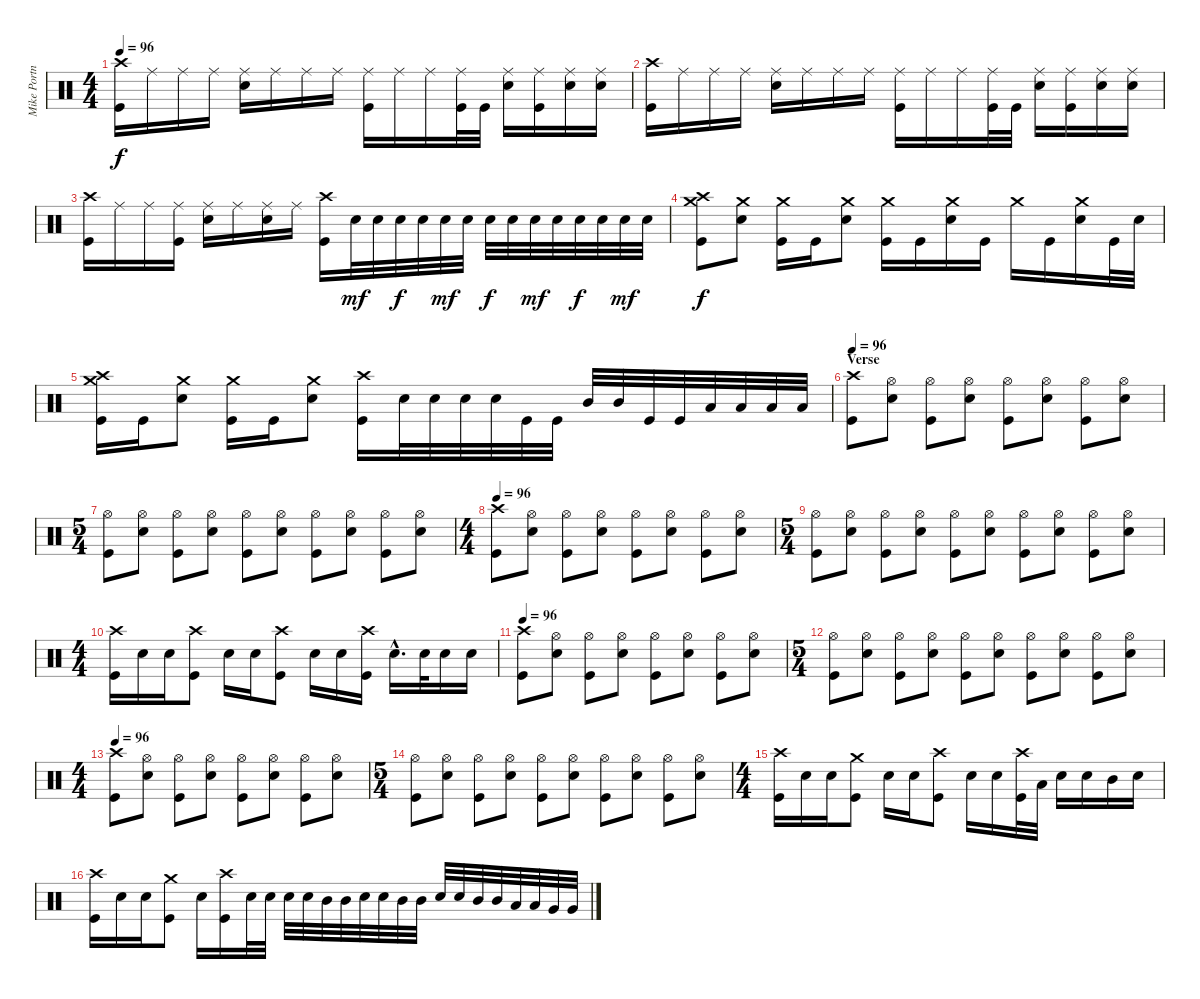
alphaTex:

\track ("Mike Portnoy" "Mike Portn") {instrument percussion}
\staff {score}
\articulation defaults
\ts (4 4)
\tempo 96
\clef neutral
\ks c
("Crash high (hit)" "Kick (hit)").16{dy f} "Ride (middle)".16 "Ride (middle)".16 "Ride (middle)".16 ("Ride (middle)" "Electric Snare (hit)").16 "Ride (middle)".16 "Ride (middle)".16 "Ride (middle)".16 ("Ride (middle)" "Kick (hit)").16 "Ride (middle)".16 "Ride (middle)".16 ("Ride (middle)" "Kick (hit)").32 "Kick (hit)".32 ("Ride (middle)" "Electric Snare (hit)").16 ("Ride (middle)" "Kick (hit)").16 ("Ride (middle)" "Electric Snare (hit)").16 ("Ride (middle)" "Electric Snare (hit)").16 |
("Crash high (hit)" "Kick (hit)").16 "Ride (middle)".16 "Ride (middle)".16 "Ride (middle)".16 ("Ride (middle)" "Electric Snare (hit)").16 "Ride (middle)".16 "Ride (middle)".16 "Ride (middle)".16 ("Ride (middle)" "Kick (hit)").16 "Ride (middle)".16 "Ride (middle)".16 ("Ride (middle)" "Kick (hit)").32 "Kick (hit)".32 ("Ride (middle)" "Electric Snare (hit)").16 ("Ride (middle)" "Kick (hit)").16 ("Ride (middle)" "Electric Snare (hit)").16 ("Ride (middle)" "Electric Snare (hit)").16 |
("Crash high (hit)" "Kick (hit)").16 "Ride (middle)".16 "Ride (middle)".16 ("Ride (middle)" "Kick (hit)").16 ("Ride (middle)" "Electric Snare (hit)").16 "Ride (middle)".16 ("Ride (middle)" "Electric Snare (hit)").16 "Ride (middle)".16 ("Crash high (hit)" "Kick (hit)").16 "Electric Snare (hit)".32{dy mf} "Electric Snare (hit)".32 "Electric Snare (hit)".32{dy f} "Electric Snare (hit)".32 "Electric Snare (hit)".32{dy mf} "Electric Snare (hit)".32 "Electric Snare (hit)".32{dy f} "Electric Snare (hit)".32 "Electric Snare (hit)".32{dy mf} "Electric Snare (hit)".32 "Electric Snare (hit)".32{dy f} "Electric Snare (hit)".32 "Electric Snare (hit)".32{dy mf} "Electric Snare (hit)".32 |
("Crash high (hit)" "Crash medium (hit)" "Kick (hit)").8{dy f} ("Crash medium (hit)" "Electric Snare (hit)").8 ("Crash medium (hit)" "Kick (hit)").16 "Kick (hit)".16 ("Crash medium (hit)" "Electric Snare (hit)").8 ("Crash medium (hit)" "Kick (hit)").16 "Kick (hit)".16 ("Crash medium (hit)" "Electric Snare (hit)").16 "Kick (hit)".16 "Crash medium (hit)".16 "Kick (hit)".16 ("Crash medium (hit)" "Electric Snare (hit)").16 "Kick (hit)".32 "Electric Snare (hit)".32 |
("Crash medium (hit)" "Crash high (hit)" "Kick (hit)").16 "Kick (hit)".16 ("Crash medium (hit)" "Electric Snare (hit)").8 ("Crash medium (hit)" "Kick (hit)").16 "Kick (hit)".16 ("Crash medium (hit)" "Electric Snare (hit)").8 ("Crash high (hit)" "Kick (hit)").16 "Electric Snare (hit)".32 "Electric Snare (hit)".32 "Electric Snare (hit)".32 "Electric Snare (hit)".32 "Kick (hit)".32 "Kick (hit)".32 "Mid Tom (hit)".32 "Mid Tom (hit)".32 "Kick (hit)".32 "Kick (hit)".32 "Low Tom (hit)".32 "Low Tom (hit)".32 "Low Tom (hit)".32 "Low Tom (hit)".32 |
\section ("" "Verse")
\tempo 96
("Crash high (hit)" "Kick (hit)").8 ("Hi-Hat (open)" "Electric Snare (hit)").8 ("Hi-Hat (open)" "Kick (hit)").8 ("Hi-Hat (open)" "Electric Snare (hit)").8 ("Hi-Hat (open)" "Kick (hit)").8 ("Hi-Hat (open)" "Electric Snare (hit)").8 ("Hi-Hat (open)" "Kick (hit)").8 ("Hi-Hat (open)" "Electric Snare (hit)").8 |
\ts (5 4)
("Hi-Hat (open)" "Kick (hit)").8 ("Hi-Hat (open)" "Electric Snare (hit)").8 ("Hi-Hat (open)" "Kick (hit)").8 ("Hi-Hat (open)" "Electric Snare (hit)").8 ("Hi-Hat (open)" "Kick (hit)").8 ("Hi-Hat (open)" "Electric Snare (hit)").8 ("Hi-Hat (open)" "Kick (hit)").8 ("Hi-Hat (open)" "Electric Snare (hit)").8 ("Hi-Hat (open)" "Kick (hit)").8 ("Hi-Hat (open)" "Electric Snare (hit)").8 |
\ts (4 4)
\tempo 96
("Crash high (hit)" "Kick (hit)").8 ("Hi-Hat (open)" "Electric Snare (hit)").8 ("Hi-Hat (open)" "Kick (hit)").8 ("Hi-Hat (open)" "Electric Snare (hit)").8 ("Hi-Hat (open)" "Kick (hit)").8 ("Hi-Hat (open)" "Electric Snare (hit)").8 ("Hi-Hat (open)" "Kick (hit)").8 ("Hi-Hat (open)" "Electric Snare (hit)").8 |
\ts (5 4)
("Hi-Hat (open)" "Kick (hit)").8 ("Hi-Hat (open)" "Electric Snare (hit)").8 ("Hi-Hat (open)" "Kick (hit)").8 ("Hi-Hat (open)" "Electric Snare (hit)").8 ("Hi-Hat (open)" "Kick (hit)").8 ("Hi-Hat (open)" "Electric Snare (hit)").8 ("Hi-Hat (open)" "Kick (hit)").8 ("Hi-Hat (open)" "Electric Snare (hit)").8 ("Hi-Hat (open)" "Kick (hit)").8 ("Hi-Hat (open)" "Electric Snare (hit)").8 |
\ts (4 4)
("Crash high (hit)" "Kick (hit)").16 "Electric Snare (hit)".16 "Electric Snare (hit)".16 ("Crash high (hit)" "Kick (hit)").8 "Electric Snare (hit)".16 "Electric Snare (hit)".16 ("Crash high (hit)" "Kick (hit)").8 "Electric Snare (hit)".16 "Electric Snare (hit)".16 ("Crash high (hit)" "Kick (hit)").16 "Electric Snare (hit)"{hac}.16{d} "Electric Snare (hit)".32 "Electric Snare (hit)".16 "Electric Snare (hit)".16 |
\tempo 96
("Crash high (hit)" "Kick (hit)").8 ("Hi-Hat (open)" "Electric Snare (hit)").8 ("Hi-Hat (open)" "Kick (hit)").8 ("Hi-Hat (open)" "Electric Snare (hit)").8 ("Hi-Hat (open)" "Kick (hit)").8 ("Hi-Hat (open)" "Electric Snare (hit)").8 ("Hi-Hat (open)" "Kick (hit)").8 ("Hi-Hat (open)" "Electric Snare (hit)").8 |
\ts (5 4)
("Hi-Hat (open)" "Kick (hit)").8 ("Hi-Hat (open)" "Electric Snare (hit)").8 ("Hi-Hat (open)" "Kick (hit)").8 ("Hi-Hat (open)" "Electric Snare (hit)").8 ("Hi-Hat (open)" "Kick (hit)").8 ("Hi-Hat (open)" "Electric Snare (hit)").8 ("Hi-Hat (open)" "Kick (hit)").8 ("Hi-Hat (open)" "Electric Snare (hit)").8 ("Hi-Hat (open)" "Kick (hit)").8 ("Hi-Hat (open)" "Electric Snare (hit)").8 |
\ts (4 4)
\tempo 96
("Crash high (hit)" "Kick (hit)").8 ("Hi-Hat (open)" "Electric Snare (hit)").8 ("Hi-Hat (open)" "Kick (hit)").8 ("Hi-Hat (open)" "Electric Snare (hit)").8 ("Hi-Hat (open)" "Kick (hit)").8 ("Hi-Hat (open)" "Electric Snare (hit)").8 ("Hi-Hat (open)" "Kick (hit)").8 ("Hi-Hat (open)" "Electric Snare (hit)").8 |
\ts (5 4)
("Hi-Hat (open)" "Kick (hit)").8 ("Hi-Hat (open)" "Electric Snare (hit)").8 ("Hi-Hat (open)" "Kick (hit)").8 ("Hi-Hat (open)" "Electric Snare (hit)").8 ("Hi-Hat (open)" "Kick (hit)").8 ("Hi-Hat (open)" "Electric Snare (hit)").8 ("Hi-Hat (open)" "Kick (hit)").8 ("Hi-Hat (open)" "Electric Snare (hit)").8 ("Hi-Hat (open)" "Kick (hit)").8 ("Hi-Hat (open)" "Electric Snare (hit)").8 |
\ts (4 4)
("Crash high (hit)" "Kick (hit)").16 "Electric Snare (hit)".16 "Electric Snare (hit)".16 ("Crash medium (hit)" "Kick (hit)").8 "Electric Snare (hit)".16 "Electric Snare (hit)".16 ("Crash high (hit)" "Kick (hit)").8 "Electric Snare (hit)".16 "Electric Snare (hit)".16 ("Crash high (hit)" "Kick (hit)").32 "Low Tom (hit)".32 "Electric Snare (hit)".16 "Electric Snare (hit)".16 "Mid Tom (hit)".16 "Electric Snare (hit)".16 |
("Crash high (hit)" "Kick (hit)").16 "Electric Snare (hit)".16 "Electric Snare (hit)".16 ("Crash medium (hit)" "Kick (hit)").8 "Electric Snare (hit)".16 ("Crash high (hit)" "Kick (hit)").16 "Electric Snare (hit)".32 "Electric Snare (hit)".32 "Electric Snare (hit)".32 "Electric Snare (hit)".32 "Mid Tom (hit)".32 "Mid Tom (hit)".32 "Electric Snare (hit)".32 "Electric Snare (hit)".32 "Mid Tom (hit)".32 "Mid Tom (hit)".32 "Electric Snare (hit)".32 "Electric Snare (hit)".32 "Mid Tom (hit)".32 "Mid Tom (hit)".32 "Low Tom (hit)".32 "Low Tom (hit)".32 "Very Low Tom (hit)".32 "Very Low Tom (hit)".32
